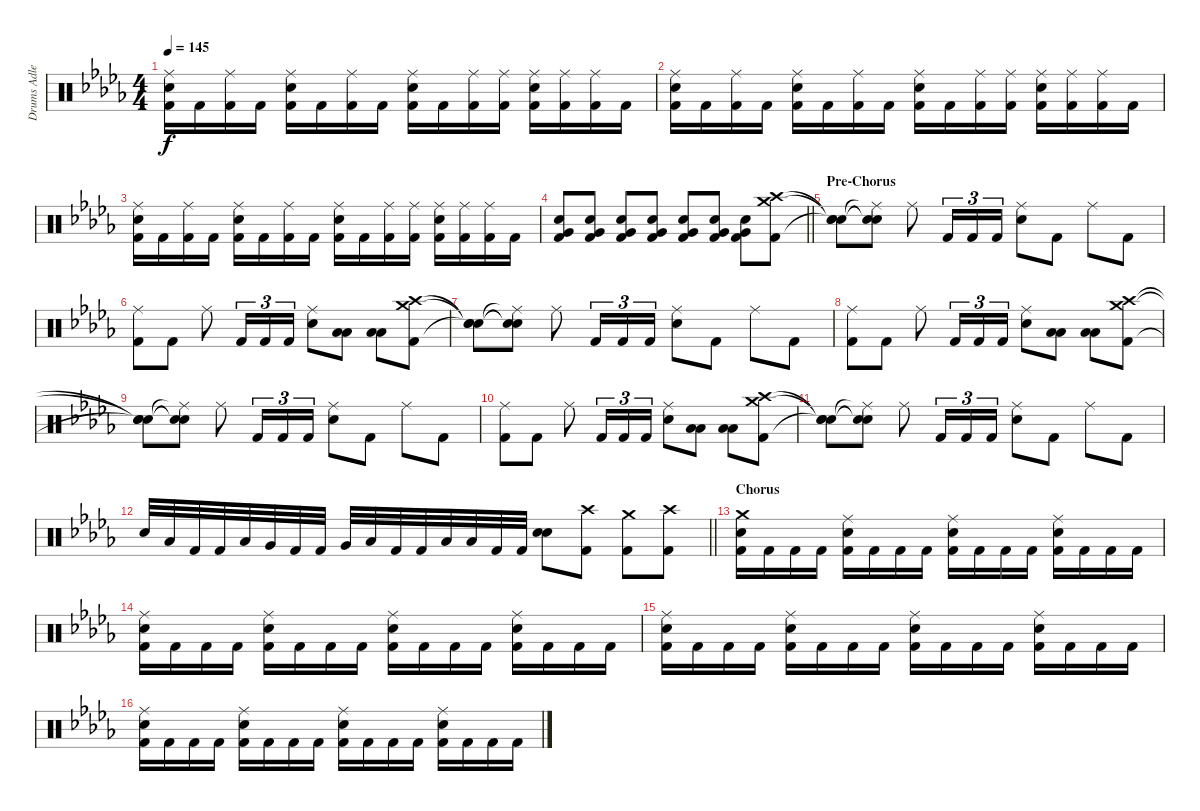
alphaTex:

\track ("Drums Adler" "Drums Adle") {instrument percussion}
\staff {score}
\articulation defaults
\ts (4 4)
\tempo 145
\clef neutral
\ks db
("Ride (middle)" "Snare (hit) 2" "Kick (hit) 2").16{dy f} "Kick (hit) 2".16 ("Ride (middle)" "Kick (hit) 2").16 "Kick (hit) 2".16 ("Ride (middle)" "Snare (hit) 2" "Kick (hit) 2").16 "Kick (hit) 2".16 ("Ride (middle)" "Kick (hit) 2").16 "Kick (hit) 2".16 ("Ride (middle)" "Snare (hit) 2" "Kick (hit) 2").16 "Kick (hit) 2".16 ("Ride (middle)" "Kick (hit) 2").16 ("Ride (middle)" "Kick (hit) 2").16 ("Ride (middle)" "Snare (hit) 2" "Kick (hit) 2").16 ("Ride (middle)" "Kick (hit) 2").16 ("Ride (middle)" "Kick (hit) 2").16 "Kick (hit) 2".16 |
("Ride (middle)" "Snare (hit) 2" "Kick (hit) 2").16 "Kick (hit) 2".16 ("Ride (middle)" "Kick (hit) 2").16 "Kick (hit) 2".16 ("Ride (middle)" "Snare (hit) 2" "Kick (hit) 2").16 "Kick (hit) 2".16 ("Ride (middle)" "Kick (hit) 2").16 "Kick (hit) 2".16 ("Ride (middle)" "Snare (hit) 2" "Kick (hit) 2").16 "Kick (hit) 2".16 ("Ride (middle)" "Kick (hit) 2").16 ("Ride (middle)" "Kick (hit) 2").16 ("Ride (middle)" "Snare (hit) 2" "Kick (hit) 2").16 ("Ride (middle)" "Kick (hit) 2").16 ("Ride (middle)" "Kick (hit) 2").16 "Kick (hit) 2".16 |
("Ride (middle)" "Snare (hit) 2" "Kick (hit) 2").16 "Kick (hit) 2".16 ("Ride (middle)" "Kick (hit) 2").16 "Kick (hit) 2".16 ("Ride (middle)" "Snare (hit) 2" "Kick (hit) 2").16 "Kick (hit) 2".16 ("Ride (middle)" "Kick (hit) 2").16 "Kick (hit) 2".16 ("Ride (middle)" "Snare (hit) 2" "Kick (hit) 2").16 "Kick (hit) 2".16 ("Ride (middle)" "Kick (hit) 2").16 ("Ride (middle)" "Kick (hit) 2").16 ("Ride (middle)" "Snare (hit) 2" "Kick (hit) 2").16 ("Ride (middle)" "Kick (hit) 2").16 ("Ride (middle)" "Kick (hit) 2").16 "Kick (hit) 2".16 |
\barLineRight lightlight
("Very Low Tom (hit)" "Snare (hit) 2" "Kick (hit) 2").8 ("Very Low Tom (hit)" "Snare (hit) 2" "Kick (hit) 2").8 ("Very Low Tom (hit)" "Snare (hit) 2" "Kick (hit) 2").8 ("Very Low Tom (hit)" "Snare (hit) 2" "Kick (hit) 2").8 ("Very Low Tom (hit)" "Snare (hit) 2" "Kick (hit) 2").8 ("Very Low Tom (hit)" "Snare (hit) 2" "Kick (hit) 2").8 ("Very Low Tom (hit)" "Snare (hit) 2" "Kick (hit) 2").8 ("Crash high (hit)" "Crash medium (hit)" "Kick (hit) 2").8 |
\section ("" "Pre-Chorus")
("Snare (hit)"{t} "Snare (hit)"{t} "Snare (hit)"{t}).8 ("Ride (middle)"{t} "Snare (hit)"{t} "Snare (hit)"{t}).8 "Ride (middle)".8 "Kick (hit) 2".16{tu (3 2)} "Kick (hit) 2".16{tu (3 2)} "Kick (hit) 2".16{tu (3 2)} ("Ride (middle)" "Snare (hit) 2").8 "Kick (hit) 2".8 "Ride (middle)".8 "Kick (hit) 2".8 |
("Ride (middle)" "Kick (hit) 2").8 "Kick (hit) 2".8 "Ride (middle)".8 "Kick (hit) 2".16{tu (3 2)} "Kick (hit) 2".16{tu (3 2)} "Kick (hit) 2".16{tu (3 2)} ("Ride (middle)" "Snare (hit) 2").8 ("Low Floor Tom (hit)" "Low Tom (hit)").8 ("Low Floor Tom (hit)" "Low Tom (hit)").8 ("Crash medium (hit)" "Crash high (hit)" "Kick (hit) 2").8 |
("Snare (hit)"{t} "Snare (hit)"{t} "Snare (hit)"{t}).8 ("Ride (middle)"{t} "Snare (hit)"{t} "Snare (hit)"{t}).8 "Ride (middle)".8 "Kick (hit) 2".16{tu (3 2)} "Kick (hit) 2".16{tu (3 2)} "Kick (hit) 2".16{tu (3 2)} ("Ride (middle)" "Snare (hit) 2").8 "Kick (hit) 2".8 "Ride (middle)".8 "Kick (hit) 2".8 |
("Ride (middle)" "Kick (hit) 2").8 "Kick (hit) 2".8 "Ride (middle)".8 "Kick (hit) 2".16{tu (3 2)} "Kick (hit) 2".16{tu (3 2)} "Kick (hit) 2".16{tu (3 2)} ("Ride (middle)" "Snare (hit) 2").8 ("Low Floor Tom (hit)" "Low Tom (hit)").8 ("Low Floor Tom (hit)" "Low Tom (hit)").8 ("Crash medium (hit)" "Crash high (hit)" "Kick (hit) 2").8 |
("Snare (hit)"{t} "Snare (hit)"{t} "Snare (hit)"{t}).8 ("Ride (middle)"{t} "Snare (hit)"{t} "Snare (hit)"{t}).8 "Ride (middle)".8 "Kick (hit) 2".16{tu (3 2)} "Kick (hit) 2".16{tu (3 2)} "Kick (hit) 2".16{tu (3 2)} ("Ride (middle)" "Snare (hit) 2").8 "Kick (hit) 2".8 "Ride (middle)".8 "Kick (hit) 2".8 |
("Ride (middle)" "Kick (hit) 2").8 "Kick (hit) 2".8 "Ride (middle)".8 "Kick (hit) 2".16{tu (3 2)} "Kick (hit) 2".16{tu (3 2)} "Kick (hit) 2".16{tu (3 2)} ("Ride (middle)" "Snare (hit) 2").8 ("Low Floor Tom (hit)" "Low Tom (hit)").8 ("Low Floor Tom (hit)" "Low Tom (hit)").8 ("Crash medium (hit)" "Crash high (hit)" "Kick (hit) 2").8 |
("Snare (hit)"{t} "Snare (hit)"{t} "Snare (hit)"{t}).8 ("Ride (middle)"{t} "Snare (hit)"{t} "Snare (hit)"{t}).8 "Ride (middle)".8 "Kick (hit) 2".16{tu (3 2)} "Kick (hit) 2".16{tu (3 2)} "Kick (hit) 2".16{tu (3 2)} ("Ride (middle)" "Snare (hit) 2").8 "Kick (hit) 2".8 "Ride (middle)".8 "Kick (hit) 2".8 |
\barLineRight lightlight "Snare (hit) 2".32 "Low Tom (hit)".32 "Kick (hit) 2".32 "Kick (hit) 2".32 "Low Tom (hit)".32 "Very Low Tom (hit)".32 "Kick (hit) 2".32 "Kick (hit) 2".32 "Very Low Tom (hit)".32 "Low Floor Tom (hit)".32 "Kick (hit) 2".32 "Kick (hit) 2".32 "Low Floor Tom (hit)".32 "Low Floor Tom (hit)".32 "Kick (hit) 2".32 "Kick (hit) 2".32
("Snare (hit) 2" "Snare (hit) 2").8{bd 60} ("Crash high (hit)" "Kick (hit) 2").8 ("Crash medium (hit)" "Kick (hit) 2").8 ("Crash high (hit)" "Kick (hit) 2").8 |
\section ("" "Chorus")
("Crash medium (hit)" "Snare (hit) 2" "Kick (hit) 2").16 "Kick (hit) 2".16 "Kick (hit) 2".16 "Kick (hit) 2".16 ("Ride (middle)" "Snare (hit) 2" "Kick (hit) 2").16 "Kick (hit) 2".16 "Kick (hit) 2".16 "Kick (hit) 2".16 ("Ride (middle)" "Snare (hit) 2" "Kick (hit) 2").16 "Kick (hit) 2".16 "Kick (hit) 2".16 "Kick (hit) 2".16 ("Ride (middle)" "Snare (hit) 2" "Kick (hit) 2").16 "Kick (hit) 2".16 "Kick (hit) 2".16 "Kick (hit) 2".16 |
("Ride (middle)" "Snare (hit) 2" "Kick (hit) 2").16 "Kick (hit) 2".16 "Kick (hit) 2".16 "Kick (hit) 2".16 ("Ride (middle)" "Snare (hit) 2" "Kick (hit) 2").16 "Kick (hit) 2".16 "Kick (hit) 2".16 "Kick (hit) 2".16 ("Ride (middle)" "Snare (hit) 2" "Kick (hit) 2").16 "Kick (hit) 2".16 "Kick (hit) 2".16 "Kick (hit) 2".16 ("Ride (middle)" "Snare (hit) 2" "Kick (hit) 2").16 "Kick (hit) 2".16 "Kick (hit) 2".16 "Kick (hit) 2".16 |
("Ride (middle)" "Snare (hit) 2" "Kick (hit) 2").16 "Kick (hit) 2".16 "Kick (hit) 2".16 "Kick (hit) 2".16 ("Ride (middle)" "Snare (hit) 2" "Kick (hit) 2").16 "Kick (hit) 2".16 "Kick (hit) 2".16 "Kick (hit) 2".16 ("Ride (middle)" "Snare (hit) 2" "Kick (hit) 2").16 "Kick (hit) 2".16 "Kick (hit) 2".16 "Kick (hit) 2".16 ("Ride (middle)" "Snare (hit) 2" "Kick (hit) 2").16 "Kick (hit) 2".16 "Kick (hit) 2".16 "Kick (hit) 2".16 |
("Ride (middle)" "Snare (hit) 2" "Kick (hit) 2").16 "Kick (hit) 2".16 "Kick (hit) 2".16 "Kick (hit) 2".16 ("Ride (middle)" "Snare (hit) 2" "Kick (hit) 2").16 "Kick (hit) 2".16 "Kick (hit) 2".16 "Kick (hit) 2".16 ("Ride (middle)" "Snare (hit) 2" "Kick (hit) 2").16 "Kick (hit) 2".16 "Kick (hit) 2".16 "Kick (hit) 2".16 ("Ride (middle)" "Snare (hit) 2" "Kick (hit) 2").16 "Kick (hit) 2".16 "Kick (hit) 2".16 "Kick (hit) 2".16
